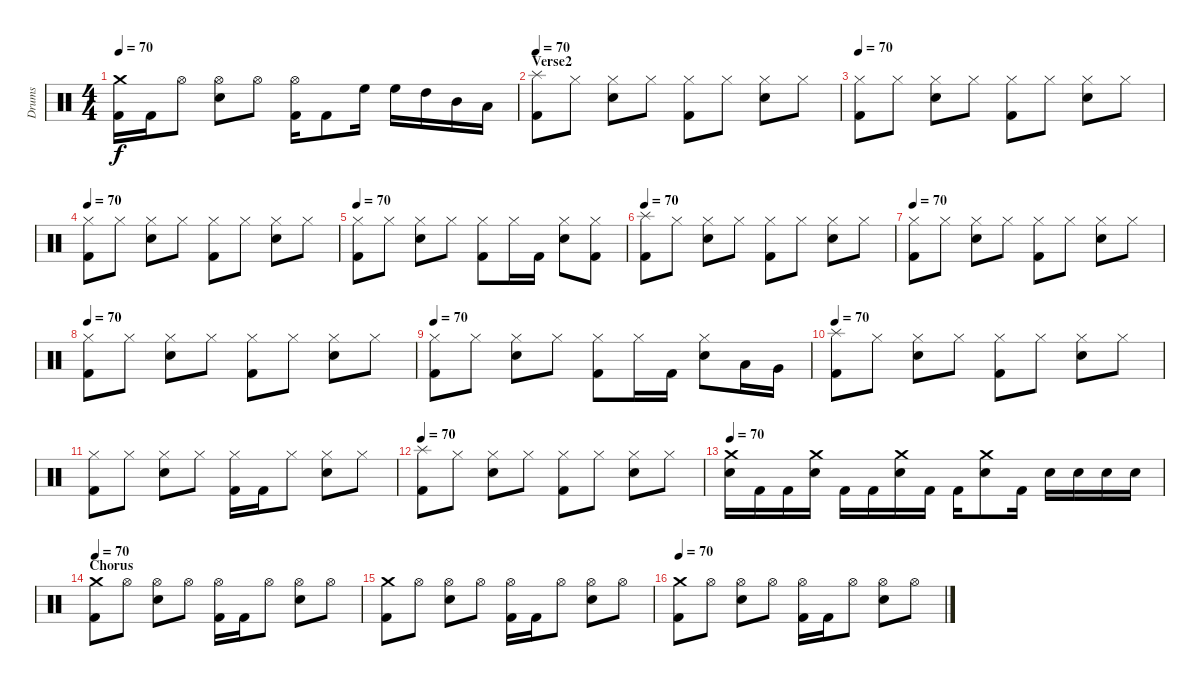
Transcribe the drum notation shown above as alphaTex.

\track ("Drums" "Drums") {instrument percussion}
\staff {score}
\articulation defaults
\ts (4 4)
\tempo 70
\clef neutral
\ks c
("Crash medium (hit)" "Kick (hit) 2").16{dy f} "Kick (hit) 2".16 "Hi-Hat (open)".8 ("Hi-Hat (open)" "Snare (hit) 2").8 "Hi-Hat (open)".8 ("Hi-Hat (open)" "Kick (hit) 2").16 "Kick (hit) 2".8 "High Floor Tom (hit)".16 "High Floor Tom (hit)".16 "High Tom (hit)".16 "Mid Tom (hit)".16 "Low Tom (hit)".16 |
\section ("" "Verse2")
\tempo 70
("Splash (hit)" "Kick (hit) 2").8 "Hi-Hat (closed)".8 ("Hi-Hat (closed)" "Snare (hit) 2").8 "Hi-Hat (closed)".8 ("Hi-Hat (closed)" "Kick (hit) 2").8 "Hi-Hat (closed)".8 ("Hi-Hat (closed)" "Snare (hit) 2").8 "Hi-Hat (closed)".8 |
\tempo 70
("Hi-Hat (closed)" "Kick (hit) 2").8 "Hi-Hat (closed)".8 ("Hi-Hat (closed)" "Snare (hit) 2").8 "Hi-Hat (closed)".8 ("Hi-Hat (closed)" "Kick (hit) 2").8 "Hi-Hat (closed)".8 ("Hi-Hat (closed)" "Snare (hit) 2").8 "Hi-Hat (closed)".8 |
\tempo 70
("Hi-Hat (closed)" "Kick (hit) 2").8 "Hi-Hat (closed)".8 ("Hi-Hat (closed)" "Snare (hit) 2").8 "Hi-Hat (closed)".8 ("Hi-Hat (closed)" "Kick (hit) 2").8 "Hi-Hat (closed)".8 ("Hi-Hat (closed)" "Snare (hit) 2").8 "Hi-Hat (closed)".8 |
\tempo 70
("Hi-Hat (closed)" "Kick (hit) 2").8 "Hi-Hat (closed)".8 ("Hi-Hat (closed)" "Snare (hit) 2").8 "Hi-Hat (closed)".8 ("Hi-Hat (closed)" "Kick (hit) 2").8 "Hi-Hat (closed)".16 "Kick (hit) 2".16 ("Hi-Hat (closed)" "Snare (hit) 2").8 ("Hi-Hat (closed)" "Kick (hit) 2").8 |
\tempo 70
("Splash (hit)" "Kick (hit) 2").8 "Hi-Hat (closed)".8 ("Hi-Hat (closed)" "Snare (hit) 2").8 "Hi-Hat (closed)".8 ("Hi-Hat (closed)" "Kick (hit) 2").8 "Hi-Hat (closed)".8 ("Hi-Hat (closed)" "Snare (hit) 2").8 "Hi-Hat (closed)".8 |
\tempo 70
("Hi-Hat (closed)" "Kick (hit) 2").8 "Hi-Hat (closed)".8 ("Hi-Hat (closed)" "Snare (hit) 2").8 "Hi-Hat (closed)".8 ("Hi-Hat (closed)" "Kick (hit) 2").8 "Hi-Hat (closed)".8 ("Hi-Hat (closed)" "Snare (hit) 2").8 "Hi-Hat (closed)".8 |
\tempo 70
("Hi-Hat (closed)" "Kick (hit) 2").8 "Hi-Hat (closed)".8 ("Hi-Hat (closed)" "Snare (hit) 2").8 "Hi-Hat (closed)".8 ("Hi-Hat (closed)" "Kick (hit) 2").8 "Hi-Hat (closed)".8 ("Hi-Hat (closed)" "Snare (hit) 2").8 "Hi-Hat (closed)".8 |
\tempo 70
("Hi-Hat (closed)" "Kick (hit) 2").8 "Hi-Hat (closed)".8 ("Hi-Hat (closed)" "Snare (hit) 2").8 "Hi-Hat (closed)".8 ("Hi-Hat (closed)" "Kick (hit) 2").8 "Hi-Hat (closed)".16 "Kick (hit) 2".16 ("Hi-Hat (closed)" "Snare (hit) 2").8 "Low Tom (hit)".16 "Very Low Tom (hit)".16 |
\tempo 70
("Splash (hit)" "Kick (hit) 2").8 "Hi-Hat (closed)".8 ("Hi-Hat (closed)" "Snare (hit) 2").8 "Hi-Hat (closed)".8 ("Hi-Hat (closed)" "Kick (hit) 2").8 "Hi-Hat (closed)".8 ("Hi-Hat (closed)" "Snare (hit) 2").8 "Hi-Hat (closed)".8 |
("Hi-Hat (closed)" "Kick (hit) 2").8 "Hi-Hat (closed)".8 ("Hi-Hat (closed)" "Snare (hit) 2").8 "Hi-Hat (closed)".8 ("Hi-Hat (closed)" "Kick (hit) 2").16 "Kick (hit) 2".16 "Hi-Hat (closed)".8 ("Hi-Hat (closed)" "Snare (hit) 2").8 "Hi-Hat (closed)".8 |
\tempo 70
("Splash (hit)" "Kick (hit) 2").8 "Hi-Hat (closed)".8 ("Hi-Hat (closed)" "Snare (hit) 2").8 "Hi-Hat (closed)".8 ("Hi-Hat (closed)" "Kick (hit) 2").8 "Hi-Hat (closed)".8 ("Hi-Hat (closed)" "Snare (hit) 2").8 "Hi-Hat (closed)".8 |
\tempo 70
("Crash medium (hit)" "Snare (hit) 2").16 "Kick (hit) 2".16 "Kick (hit) 2".16 ("Crash medium (hit)" "Snare (hit) 2").16 "Kick (hit) 2".16 "Kick (hit) 2".16 ("Crash medium (hit)" "Snare (hit) 2").16 "Kick (hit) 2".16 "Kick (hit) 2".16 ("Crash medium (hit)" "Snare (hit) 2").8 "Kick (hit) 2".16 "Snare (hit) 2".16 "Snare (hit) 2".16 "Snare (hit) 2".16 "Snare (hit) 2".16 |
\section ("" "Chorus")
\tempo 70
("Crash medium (hit)" "Kick (hit) 2").8 "Hi-Hat (open)".8 ("Hi-Hat (open)" "Snare (hit) 2").8 "Hi-Hat (open)".8 ("Hi-Hat (open)" "Kick (hit) 2").16 "Kick (hit) 2".16 "Hi-Hat (open)".8 ("Hi-Hat (open)" "Snare (hit) 2").8 "Hi-Hat (open)".8 |
("Crash medium (hit)" "Kick (hit) 2").8 "Hi-Hat (open)".8 ("Hi-Hat (open)" "Snare (hit) 2").8 "Hi-Hat (open)".8 ("Hi-Hat (open)" "Kick (hit) 2").16 "Kick (hit) 2".16 "Hi-Hat (open)".8 ("Hi-Hat (open)" "Snare (hit) 2").8 "Hi-Hat (open)".8 |
\tempo 70
("Crash medium (hit)" "Kick (hit) 2").8 "Hi-Hat (open)".8 ("Hi-Hat (open)" "Snare (hit) 2").8 "Hi-Hat (open)".8 ("Hi-Hat (open)" "Kick (hit) 2").16 "Kick (hit) 2".16 "Hi-Hat (open)".8 ("Hi-Hat (open)" "Snare (hit) 2").8 "Hi-Hat (open)".8
